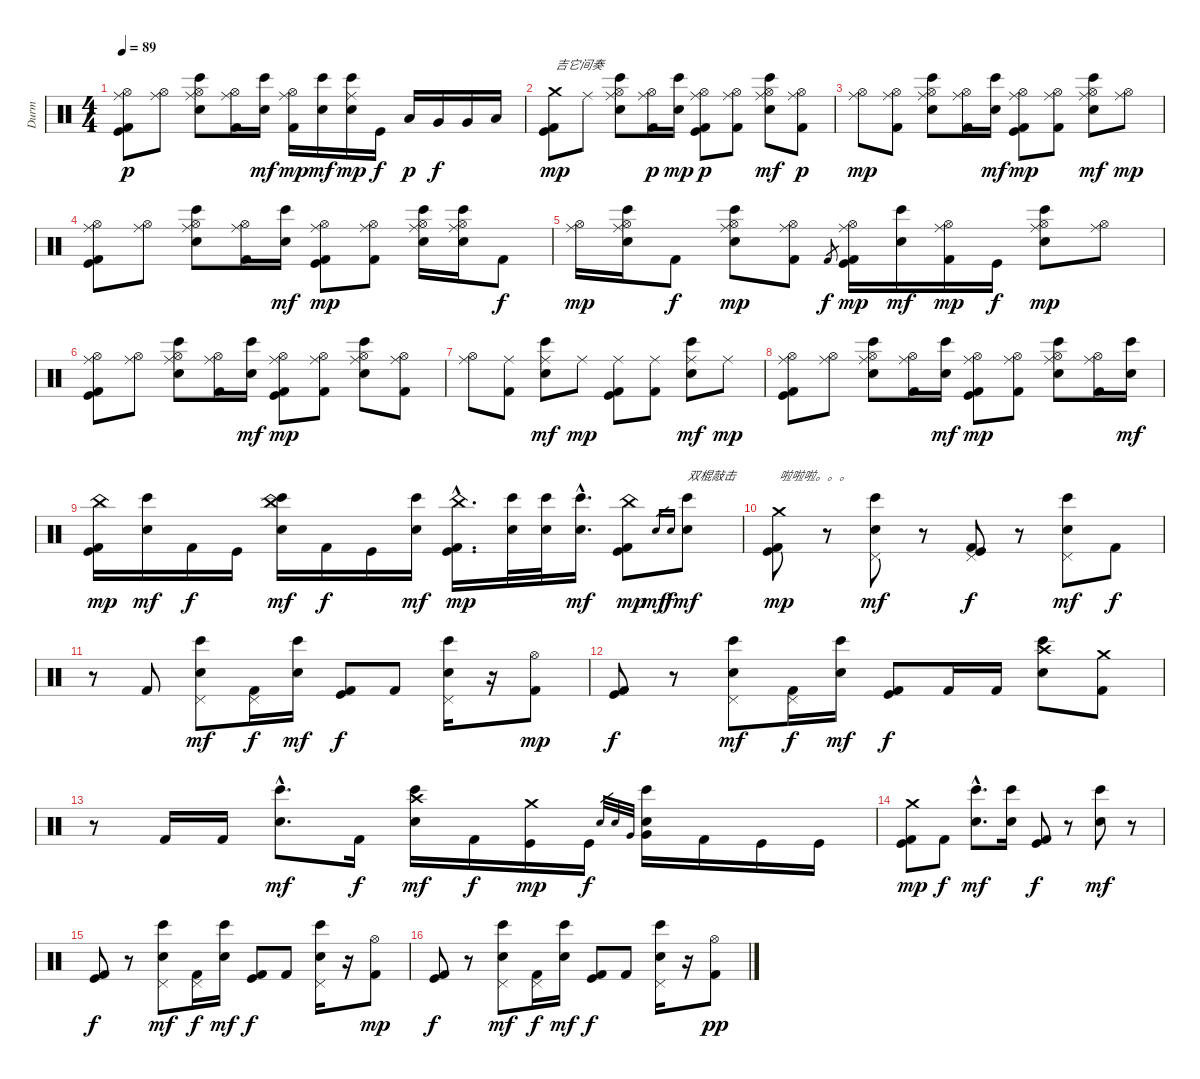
\track ("Durm" "Durm") {instrument percussion}
\staff {score}
\articulation defaults
\ts (4 4)
\tempo 89
\clef neutral
\ks c
("Ride (middle)" "Kick (hit) 2" "Kick (hit)" "Hi-Hat (open)").8{dy p} ("Ride (middle)" "Hi-Hat (open)").8 ("Ride (middle)" "Bongo High (hit)" "Electric Snare (hit)" "Hi-Hat (open)").8 ("Ride (middle)" "Kick (hit) 2" "Hi-Hat (open)").16 ("Bongo High (hit)" "Electric Snare (hit)").16{dy mf} ("Kick (hit) 2" "Hi-Hat (open)" "Ride (middle)").16{dy mp} ("Bongo High (hit)" "Electric Snare (hit)").16{dy mf} ("Electric Snare (hit)" "Bongo High (hit)" "Ride (middle)").16{dy mp} "Kick (hit)".16{dy f} "Low Tom (hit)".16{dy p} "Very Low Tom (hit)".16{dy f} "Very Low Tom (hit)".16 "Low Floor Tom (hit)".16 |
("Crash medium (hit)" "Kick (hit) 2" "Kick (hit)").8{txt "吉它间奏" dy mp} "Ride (middle)".8 ("Ride (middle)" "Hi-Hat (open)" "Bongo High (hit)" "Electric Snare (hit)").8 ("Ride (middle)" "Hi-Hat (open)" "Kick (hit) 2").16{dy p} ("Bongo High (hit)" "Electric Snare (hit)").16{dy mp} ("Ride (middle)" "Hi-Hat (open)" "Kick (hit) 2" "Kick (hit)").8{dy p} ("Ride (middle)" "Hi-Hat (open)" "Kick (hit) 2").8 ("Ride (middle)" "Hi-Hat (open)" "Bongo High (hit)" "Electric Snare (hit)").8{dy mf} ("Ride (middle)" "Hi-Hat (open)" "Kick (hit) 2").8{dy p} |
("Hi-Hat (open)" "Ride (middle)").8{dy mp} ("Hi-Hat (open)" "Kick (hit) 2" "Ride (middle)").8 ("Hi-Hat (open)" "Bongo High (hit)" "Electric Snare (hit)" "Ride (middle)").8 ("Hi-Hat (open)" "Kick (hit) 2" "Ride (middle)").16 ("Electric Snare (hit)" "Bongo High (hit)").16{dy mf} ("Hi-Hat (open)" "Ride (middle)" "Kick (hit) 2" "Kick (hit)").8{dy mp} ("Hi-Hat (open)" "Ride (middle)" "Kick (hit) 2").8 ("Hi-Hat (open)" "Ride (middle)" "Bongo High (hit)" "Electric Snare (hit)").8{dy mf} ("Hi-Hat (open)" "Ride (middle)").8{dy mp} |
("Hi-Hat (open)" "Kick (hit) 2" "Kick (hit)" "Ride (middle)").8 ("Hi-Hat (open)" "Ride (middle)").8 ("Hi-Hat (open)" "Bongo High (hit)" "Electric Snare (hit)" "Ride (middle)").8 ("Hi-Hat (open)" "Kick (hit) 2" "Ride (middle)").16 ("Electric Snare (hit)" "Bongo High (hit)").16{dy mf} ("Hi-Hat (open)" "Kick (hit) 2" "Kick (hit)" "Ride (middle)").8{dy mp} ("Hi-Hat (open)" "Kick (hit) 2" "Ride (middle)").8 ("Hi-Hat (open)" "Bongo High (hit)" "Electric Snare (hit)" "Ride (middle)").16 ("Hi-Hat (open)" "Bongo High (hit)" "Electric Snare (hit)" "Ride (middle)").16 "Kick (hit) 2".8{dy f} |
("Hi-Hat (open)" "Ride (middle)").16{dy mp} ("Electric Snare (hit)" "Bongo High (hit)" "Hi-Hat (open)" "Ride (middle)").16 "Kick (hit) 2".8{dy f} ("Electric Snare (hit)" "Bongo High (hit)" "Hi-Hat (open)" "Ride (middle)").8{dy mp} ("Kick (hit) 2" "Hi-Hat (open)" "Ride (middle)").8 "Kick (hit) 2"{sl}.8{gr dy f} ("Kick (hit) 2" "Kick (hit)" "Hi-Hat (open)" "Ride (middle)").16{dy mp} ("Bongo High (hit)" "Electric Snare (hit)").16{dy mf} ("Kick (hit) 2" "Hi-Hat (open)" "Ride (middle)").16{dy mp} "Kick (hit)".16{dy f} ("Electric Snare (hit)" "Bongo High (hit)" "Hi-Hat (open)" "Ride (middle)").8{dy mp} ("Hi-Hat (open)" "Ride (middle)").8 |
("Hi-Hat (open)" "Kick (hit) 2" "Kick (hit)" "Ride (middle)").8 ("Hi-Hat (open)" "Ride (middle)").8 ("Hi-Hat (open)" "Bongo High (hit)" "Electric Snare (hit)" "Ride (middle)").8 ("Hi-Hat (open)" "Kick (hit) 2" "Ride (middle)").16 ("Electric Snare (hit)" "Bongo High (hit)").16{dy mf} ("Hi-Hat (open)" "Kick (hit) 2" "Kick (hit)" "Ride (middle)").8{dy mp} ("Hi-Hat (open)" "Kick (hit) 2" "Ride (middle)").8 ("Hi-Hat (open)" "Bongo High (hit)" "Electric Snare (hit)" "Ride (middle)").8 ("Hi-Hat (open)" "Kick (hit) 2" "Ride (middle)").8 |
("Ride (middle)" "Hi-Hat (open)").8 ("Ride (middle)" "Kick (hit) 2").8 ("Ride (middle)" "Bongo High (hit)" "Electric Snare (hit)").8{dy mf} "Ride (middle)".8{dy mp} ("Ride (middle)" "Kick (hit) 2" "Kick (hit)").8 ("Ride (middle)" "Kick (hit) 2").8 ("Ride (middle)" "Electric Snare (hit)" "Bongo High (hit)").8{dy mf} "Ride (middle)".8{dy mp} |
("Hi-Hat (open)" "Kick (hit) 2" "Kick (hit)" "Ride (middle)").8 ("Hi-Hat (open)" "Ride (middle)").8 ("Hi-Hat (open)" "Bongo High (hit)" "Electric Snare (hit)" "Ride (middle)").8 ("Hi-Hat (open)" "Kick (hit) 2" "Ride (middle)").16 ("Electric Snare (hit)" "Bongo High (hit)").16{dy mf} ("Hi-Hat (open)" "Kick (hit) 2" "Kick (hit)" "Ride (middle)").8{dy mp} ("Hi-Hat (open)" "Kick (hit) 2" "Ride (middle)").8 ("Hi-Hat (open)" "Bongo High (hit)" "Electric Snare (hit)" "Ride (middle)").8 ("Hi-Hat (open)" "Kick (hit) 2" "Ride (middle)").16 ("Bongo High (hit)" "Electric Snare (hit)").16{dy mf} |
("China (hit)" "Kick (hit)" "Kick (hit) 2").16{dy mp} ("Bongo High (hit)" "Electric Snare (hit)").16{dy mf} "Kick (hit) 2".16{dy f} "Kick (hit)".16 ("China (hit)" "Bongo High (hit)" "Electric Snare (hit)").16{dy mf} "Kick (hit) 2".16{dy f} "Kick (hit)".16 ("Electric Snare (hit)" "Bongo High (hit)").16{dy mf} ("China (hit)"{hac} "Kick (hit) 2"{hac} "Kick (hit)"{hac}).16{d dy mp} ("Bongo High (hit)" "Electric Snare (hit)").32 ("Bongo High (hit)" "Electric Snare (hit)").32 ("Bongo High (hit)"{hac} "Electric Snare (hit)"{hac}).16{d dy mf} ("China (hit)" "Kick (hit)" "Kick (hit) 2").8{dy mp} "Snare (hit)".16{gr dy mf} "Electric Snare (hit)".16{gr dy f} ("Bongo High (hit)" "Electric Snare (hit)").8{txt "双棍敲击" dy mf} |
("Crash medium (hit)" "Kick (hit) 2" "Kick (hit)").8{txt "啦啦啦。。。" dy mp} r.8 ("Pedal Hi-Hat (hit)" "Bongo High (hit)" "Electric Snare (hit)").8{dy mf} r.8 ("Pedal Hi-Hat (hit)" "Kick (hit) 2" "Kick (hit)").8{dy f} r.8 ("Pedal Hi-Hat (hit)" "Electric Snare (hit)" "Bongo High (hit)").8{dy mf} "Kick (hit) 2".8{dy f} |
r.8 "Kick (hit) 2".8 ("Pedal Hi-Hat (hit)" "Bongo High (hit)" "Electric Snare (hit)").8{dy mf} ("Pedal Hi-Hat (hit)" "Kick (hit) 2").16{dy f} ("Bongo High (hit)" "Electric Snare (hit)").16{dy mf} ("Kick (hit) 2" "Kick (hit)").8{dy f} "Kick (hit) 2".8 ("Pedal Hi-Hat (hit)" "Bongo High (hit)" "Electric Snare (hit)").16 r.16 ("Hi-Hat (open)" "Kick (hit) 2").8{dy mp} |
("Kick (hit)" "Kick (hit) 2").8{dy f} r.8 ("Pedal Hi-Hat (hit)" "Bongo High (hit)" "Electric Snare (hit)").8{dy mf} ("Pedal Hi-Hat (hit)" "Kick (hit) 2").16{dy f} ("Bongo High (hit)" "Electric Snare (hit)").16{dy mf} ("Kick (hit) 2" "Kick (hit)").8{dy f} "Kick (hit) 2".16 "Kick (hit) 2".16 ("Crash high (hit)" "Bongo High (hit)" "Electric Snare (hit)").8 ("Kick (hit) 2" "Crash medium (hit)").8 |
r.8 "Kick (hit) 2".16 "Kick (hit) 2".16 ("Electric Snare (hit)"{hac} "Bongo High (hit)"{hac}).8{d dy mf} "Kick (hit) 2".16{dy f} ("Crash high (hit)" "Bongo High (hit)" "Electric Snare (hit)").16{dy mf} "Kick (hit) 2".16{dy f} ("Crash medium (hit)" "Kick (hit)").16{dy mp} "Kick (hit)".16{dy f} "Electric Snare (hit)".32{gr} "Snare (hit)".32{gr} "Very Low Tom (hit)".32{gr} ("Electric Snare (hit)" "Bongo High (hit)" "Very Low Tom (hit)").16 "Kick (hit) 2".16 "Kick (hit)".16 "Kick (hit)".16 |
("Crash medium (hit)" "Kick (hit) 2" "Kick (hit)").8{dy mp} "Kick (hit) 2".8{dy f} ("Bongo High (hit)"{hac} "Electric Snare (hit)"{hac}).8{d dy mf} ("Bongo High (hit)" "Electric Snare (hit)").16 ("Kick (hit) 2" "Kick (hit)").8{dy f} r.8 ("Bongo High (hit)" "Electric Snare (hit)").8{dy mf} r.8 |
("Kick (hit) 2" "Kick (hit)").8{dy f} r.8 ("Pedal Hi-Hat (hit)" "Bongo High (hit)" "Electric Snare (hit)").8{dy mf} ("Pedal Hi-Hat (hit)" "Kick (hit) 2").16{dy f} ("Bongo High (hit)" "Electric Snare (hit)").16{dy mf} ("Kick (hit) 2" "Kick (hit)").8{dy f} "Kick (hit) 2".8 ("Pedal Hi-Hat (hit)" "Bongo High (hit)" "Electric Snare (hit)").16 r.16 ("Hi-Hat (open)" "Kick (hit) 2").8{dy mp} |
("Kick (hit) 2" "Kick (hit)").8{dy f} r.8 ("Pedal Hi-Hat (hit)" "Bongo High (hit)" "Electric Snare (hit)").8{dy mf} ("Pedal Hi-Hat (hit)" "Kick (hit) 2").16{dy f} ("Bongo High (hit)" "Electric Snare (hit)").16{dy mf} ("Kick (hit) 2" "Kick (hit)").8{dy f} "Kick (hit) 2".8 ("Pedal Hi-Hat (hit)" "Bongo High (hit)" "Electric Snare (hit)").16 r.16 ("Hi-Hat (open)" "Kick (hit) 2").8{dy pp}
